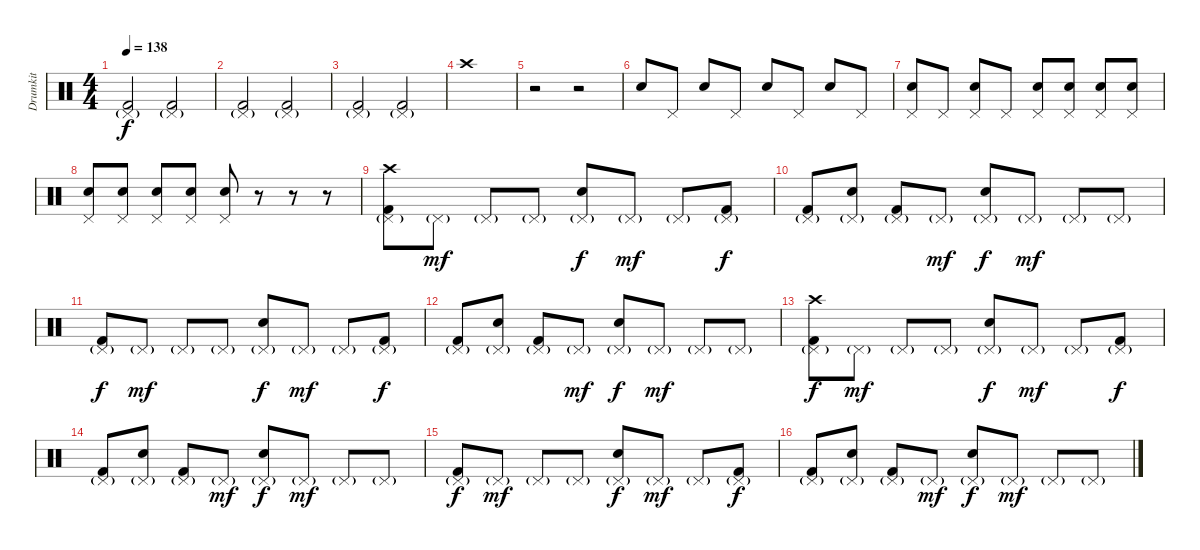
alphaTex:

\track ("Drumkit" "Drumkit") {instrument percussion}
\staff {score}
\articulation defaults
\ts (4 4)
\tempo 138
\clef neutral
\ks c
("Pedal Hi-Hat (hit)"{g} "Kick (hit) 2").2{dy f} ("Pedal Hi-Hat (hit)"{g} "Kick (hit) 2").2 |
("Pedal Hi-Hat (hit)"{g} "Kick (hit) 2").2 ("Pedal Hi-Hat (hit)"{g} "Kick (hit) 2").2 |
("Pedal Hi-Hat (hit)"{g} "Kick (hit) 2").2 ("Pedal Hi-Hat (hit)"{g} "Kick (hit) 2").2 |
"Crash high (hit)".1 |
r.2 r.2 |
"Snare (hit) 2".8 "Pedal Hi-Hat (hit)".8 "Snare (hit) 2".8 "Pedal Hi-Hat (hit)".8 "Snare (hit) 2".8 "Pedal Hi-Hat (hit)".8 "Snare (hit) 2".8 "Pedal Hi-Hat (hit)".8 |
("Pedal Hi-Hat (hit)" "Snare (hit) 2").8 "Pedal Hi-Hat (hit)".8 ("Pedal Hi-Hat (hit)" "Snare (hit) 2").8 "Pedal Hi-Hat (hit)".8 ("Pedal Hi-Hat (hit)" "Snare (hit) 2").8 ("Pedal Hi-Hat (hit)" "Snare (hit) 2").8 ("Pedal Hi-Hat (hit)" "Snare (hit) 2").8 ("Pedal Hi-Hat (hit)" "Snare (hit) 2").8 |
("Pedal Hi-Hat (hit)" "Snare (hit) 2").8 ("Pedal Hi-Hat (hit)" "Snare (hit) 2").8 ("Pedal Hi-Hat (hit)" "Snare (hit) 2").8 ("Pedal Hi-Hat (hit)" "Snare (hit) 2").8 ("Pedal Hi-Hat (hit)" "Snare (hit) 2").8 r.8 r.8 r.8 |
("Crash high (hit)" "Pedal Hi-Hat (hit)"{g} "Kick (hit) 2").8 "Pedal Hi-Hat (hit)"{g}.8{dy mf} "Pedal Hi-Hat (hit)"{g}.8 "Pedal Hi-Hat (hit)"{g}.8 ("Snare (hit) 2" "Pedal Hi-Hat (hit)"{g}).8{dy f} "Pedal Hi-Hat (hit)"{g}.8{dy mf} "Pedal Hi-Hat (hit)"{g}.8 ("Pedal Hi-Hat (hit)"{g} "Kick (hit) 2").8{dy f} |
("Pedal Hi-Hat (hit)"{g} "Kick (hit) 2").8 ("Snare (hit) 2" "Pedal Hi-Hat (hit)"{g}).8 ("Pedal Hi-Hat (hit)"{g} "Kick (hit) 2").8 "Pedal Hi-Hat (hit)"{g}.8{dy mf} ("Snare (hit) 2" "Pedal Hi-Hat (hit)"{g}).8{dy f} "Pedal Hi-Hat (hit)"{g}.8{dy mf} "Pedal Hi-Hat (hit)"{g}.8 "Pedal Hi-Hat (hit)"{g}.8 |
("Pedal Hi-Hat (hit)"{g} "Kick (hit) 2").8{dy f} "Pedal Hi-Hat (hit)"{g}.8{dy mf} "Pedal Hi-Hat (hit)"{g}.8 "Pedal Hi-Hat (hit)"{g}.8 ("Snare (hit) 2" "Pedal Hi-Hat (hit)"{g}).8{dy f} "Pedal Hi-Hat (hit)"{g}.8{dy mf} "Pedal Hi-Hat (hit)"{g}.8 ("Pedal Hi-Hat (hit)"{g} "Kick (hit) 2").8{dy f} |
("Pedal Hi-Hat (hit)"{g} "Kick (hit) 2").8 ("Snare (hit) 2" "Pedal Hi-Hat (hit)"{g}).8 ("Pedal Hi-Hat (hit)"{g} "Kick (hit) 2").8 "Pedal Hi-Hat (hit)"{g}.8{dy mf} ("Snare (hit) 2" "Pedal Hi-Hat (hit)"{g}).8{dy f} "Pedal Hi-Hat (hit)"{g}.8{dy mf} "Pedal Hi-Hat (hit)"{g}.8 "Pedal Hi-Hat (hit)"{g}.8 |
("Crash high (hit)" "Pedal Hi-Hat (hit)"{g} "Kick (hit) 2").8{dy f} "Pedal Hi-Hat (hit)"{g}.8{dy mf} "Pedal Hi-Hat (hit)"{g}.8 "Pedal Hi-Hat (hit)"{g}.8 ("Snare (hit) 2" "Pedal Hi-Hat (hit)"{g}).8{dy f} "Pedal Hi-Hat (hit)"{g}.8{dy mf} "Pedal Hi-Hat (hit)"{g}.8 ("Pedal Hi-Hat (hit)"{g} "Kick (hit) 2").8{dy f} |
("Pedal Hi-Hat (hit)"{g} "Kick (hit) 2").8 ("Snare (hit) 2" "Pedal Hi-Hat (hit)"{g}).8 ("Pedal Hi-Hat (hit)"{g} "Kick (hit) 2").8 "Pedal Hi-Hat (hit)"{g}.8{dy mf} ("Snare (hit) 2" "Pedal Hi-Hat (hit)"{g}).8{dy f} "Pedal Hi-Hat (hit)"{g}.8{dy mf} "Pedal Hi-Hat (hit)"{g}.8 "Pedal Hi-Hat (hit)"{g}.8 |
("Pedal Hi-Hat (hit)"{g} "Kick (hit) 2").8{dy f} "Pedal Hi-Hat (hit)"{g}.8{dy mf} "Pedal Hi-Hat (hit)"{g}.8 "Pedal Hi-Hat (hit)"{g}.8 ("Snare (hit) 2" "Pedal Hi-Hat (hit)"{g}).8{dy f} "Pedal Hi-Hat (hit)"{g}.8{dy mf} "Pedal Hi-Hat (hit)"{g}.8 ("Pedal Hi-Hat (hit)"{g} "Kick (hit) 2").8{dy f} |
("Pedal Hi-Hat (hit)"{g} "Kick (hit) 2").8 ("Snare (hit) 2" "Pedal Hi-Hat (hit)"{g}).8 ("Pedal Hi-Hat (hit)"{g} "Kick (hit) 2").8 "Pedal Hi-Hat (hit)"{g}.8{dy mf} ("Snare (hit) 2" "Pedal Hi-Hat (hit)"{g}).8{dy f} "Pedal Hi-Hat (hit)"{g}.8{dy mf} "Pedal Hi-Hat (hit)"{g}.8 "Pedal Hi-Hat (hit)"{g}.8
